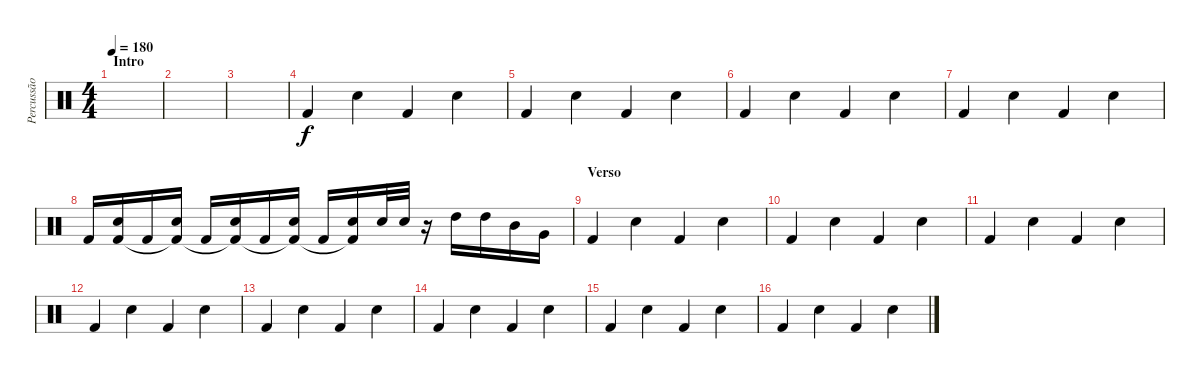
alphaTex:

\track ("Percussão" "Percussão") {instrument percussion}
\staff {score}
\articulation defaults
\ts (4 4)
\section ("" "Intro")
\tempo 180
\clef neutral
\ks c
|
|
|
"Kick (hit) 2".4 "Snare (hit) 2".4 "Kick (hit) 2".4 "Snare (hit) 2".4 |
"Kick (hit) 2".4 "Snare (hit) 2".4 "Kick (hit) 2".4 "Snare (hit) 2".4 |
"Kick (hit) 2".4 "Snare (hit) 2".4 "Kick (hit) 2".4 "Snare (hit) 2".4 |
"Kick (hit) 2".4 "Snare (hit) 2".4 "Kick (hit) 2".4 "Snare (hit) 2".4 |
"Kick (hit) 2".16 ("Snare (hit) 2" "Kick (hit) 2").16 "Kick (hit) 2".16 ("Snare (hit) 2" "Kick (hit) 2"{t}).16 "Kick (hit) 2".16 ("Snare (hit) 2" "Kick (hit) 2"{t}).16 "Kick (hit) 2".16 ("Snare (hit) 2" "Kick (hit) 2"{t}).16 "Kick (hit) 2".16 ("Snare (hit) 2" "Kick (hit) 2"{t}).16 "Snare (hit) 2".32 "Snare (hit) 2".32 r.16 "High Tom (hit)".16 "High Tom (hit)".16 "Mid Tom (hit)".16 "Very Low Tom (hit)".16 |
\section ("" "Verso")
"Kick (hit) 2".4 "Snare (hit) 2".4 "Kick (hit) 2".4 "Snare (hit) 2".4 |
"Kick (hit) 2".4 "Snare (hit) 2".4 "Kick (hit) 2".4 "Snare (hit) 2".4 |
"Kick (hit) 2".4 "Snare (hit) 2".4 "Kick (hit) 2".4 "Snare (hit) 2".4 |
"Kick (hit) 2".4 "Snare (hit) 2".4 "Kick (hit) 2".4 "Snare (hit) 2".4 |
"Kick (hit) 2".4 "Snare (hit) 2".4 "Kick (hit) 2".4 "Snare (hit) 2".4 |
"Kick (hit) 2".4 "Snare (hit) 2".4 "Kick (hit) 2".4 "Snare (hit) 2".4 |
"Kick (hit) 2".4 "Snare (hit) 2".4 "Kick (hit) 2".4 "Snare (hit) 2".4 |
"Kick (hit) 2".4 "Snare (hit) 2".4 "Kick (hit) 2".4 "Snare (hit) 2".4
